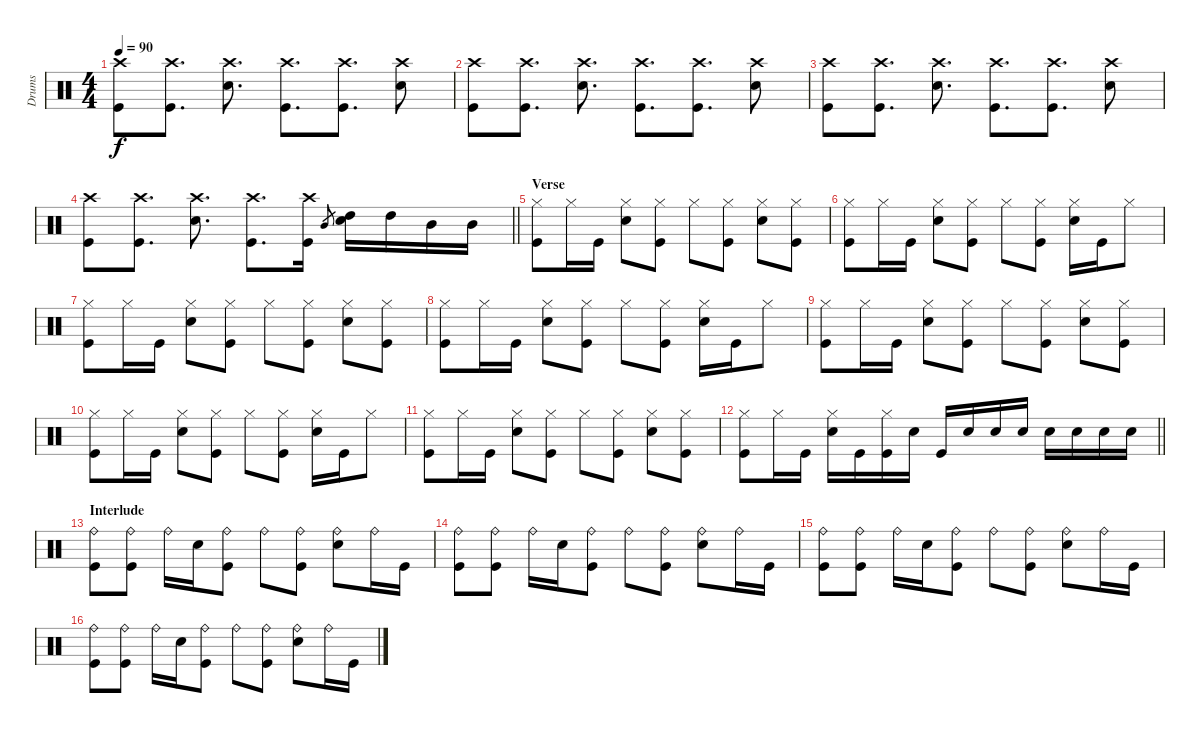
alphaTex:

\track ("Drums" "Drums") {instrument percussion}
\staff {score}
\articulation defaults
\ts (4 4)
\tempo 90
\clef neutral
\ks c
("Crash high (hit)" "Kick (hit)").8{dy f} ("Crash high (hit)" "Kick (hit)").8{d} ("Crash high (hit)" "Electric Snare (hit)").8{d} ("Crash high (hit)" "Kick (hit)").8{d} ("Crash high (hit)" "Kick (hit)").8{d} ("Crash high (hit)" "Electric Snare (hit)").8 |
("Crash high (hit)" "Kick (hit)").8 ("Crash high (hit)" "Kick (hit)").8{d} ("Crash high (hit)" "Electric Snare (hit)").8{d} ("Crash high (hit)" "Kick (hit)").8{d} ("Crash high (hit)" "Kick (hit)").8{d} ("Crash high (hit)" "Electric Snare (hit)").8 |
("Crash high (hit)" "Kick (hit)").8 ("Crash high (hit)" "Kick (hit)").8{d} ("Crash high (hit)" "Electric Snare (hit)").8{d} ("Crash high (hit)" "Kick (hit)").8{d} ("Crash high (hit)" "Kick (hit)").8{d} ("Crash high (hit)" "Electric Snare (hit)").8 |
\barLineRight lightlight
("Crash high (hit)" "Kick (hit)").8 ("Crash high (hit)" "Kick (hit)").8{d} ("Crash high (hit)" "Electric Snare (hit)").8{d} ("Crash high (hit)" "Kick (hit)").8{d} ("Crash high (hit)" "Kick (hit)").16 "Mid Tom (hit)".8{gr} ("High Tom (hit)" "Electric Snare (hit)").16 "High Tom (hit)".16 "Mid Tom (hit)".16 "Mid Tom (hit)".16 |
\section ("" "Verse ")
("Hi-Hat (closed)" "Kick (hit)").8 "Hi-Hat (closed)".16 "Kick (hit)".16 ("Hi-Hat (closed)" "Electric Snare (hit)").8 ("Hi-Hat (closed)" "Kick (hit)").8 "Hi-Hat (closed)".8 ("Hi-Hat (closed)" "Kick (hit)").8 ("Hi-Hat (closed)" "Electric Snare (hit)").8 ("Hi-Hat (closed)" "Kick (hit)").8 |
("Hi-Hat (closed)" "Kick (hit)").8 "Hi-Hat (closed)".16 "Kick (hit)".16 ("Hi-Hat (closed)" "Electric Snare (hit)").8 ("Hi-Hat (closed)" "Kick (hit)").8 "Hi-Hat (closed)".8 ("Hi-Hat (closed)" "Kick (hit)").8 ("Hi-Hat (closed)" "Electric Snare (hit)").16 "Kick (hit)".16 "Hi-Hat (closed)".8 |
("Hi-Hat (closed)" "Kick (hit)").8 "Hi-Hat (closed)".16 "Kick (hit)".16 ("Hi-Hat (closed)" "Electric Snare (hit)").8 ("Hi-Hat (closed)" "Kick (hit)").8 "Hi-Hat (closed)".8 ("Hi-Hat (closed)" "Kick (hit)").8 ("Hi-Hat (closed)" "Electric Snare (hit)").8 ("Hi-Hat (closed)" "Kick (hit)").8 |
("Hi-Hat (closed)" "Kick (hit)").8 "Hi-Hat (closed)".16 "Kick (hit)".16 ("Hi-Hat (closed)" "Electric Snare (hit)").8 ("Hi-Hat (closed)" "Kick (hit)").8 "Hi-Hat (closed)".8 ("Hi-Hat (closed)" "Kick (hit)").8 ("Hi-Hat (closed)" "Electric Snare (hit)").16 "Kick (hit)".16 "Hi-Hat (closed)".8 |
("Hi-Hat (closed)" "Kick (hit)").8 "Hi-Hat (closed)".16 "Kick (hit)".16 ("Hi-Hat (closed)" "Electric Snare (hit)").8 ("Hi-Hat (closed)" "Kick (hit)").8 "Hi-Hat (closed)".8 ("Hi-Hat (closed)" "Kick (hit)").8 ("Hi-Hat (closed)" "Electric Snare (hit)").8 ("Hi-Hat (closed)" "Kick (hit)").8 |
("Hi-Hat (closed)" "Kick (hit)").8 "Hi-Hat (closed)".16 "Kick (hit)".16 ("Hi-Hat (closed)" "Electric Snare (hit)").8 ("Hi-Hat (closed)" "Kick (hit)").8 "Hi-Hat (closed)".8 ("Hi-Hat (closed)" "Kick (hit)").8 ("Hi-Hat (closed)" "Electric Snare (hit)").16 "Kick (hit)".16 "Hi-Hat (closed)".8 |
("Hi-Hat (closed)" "Kick (hit)").8 "Hi-Hat (closed)".16 "Kick (hit)".16 ("Hi-Hat (closed)" "Electric Snare (hit)").8 ("Hi-Hat (closed)" "Kick (hit)").8 "Hi-Hat (closed)".8 ("Hi-Hat (closed)" "Kick (hit)").8 ("Hi-Hat (closed)" "Electric Snare (hit)").8 ("Hi-Hat (closed)" "Kick (hit)").8 |
\barLineRight lightlight
("Hi-Hat (closed)" "Kick (hit)").8 "Hi-Hat (closed)".16 "Kick (hit)".16 ("Hi-Hat (closed)" "Electric Snare (hit)").16 "Kick (hit)".16 ("Hi-Hat (closed)" "Kick (hit)").16 "Electric Snare (hit)".16 "Kick (hit)".16 "Electric Snare (hit)".16 "Electric Snare (hit)".16 "Electric Snare (hit)".16 "Electric Snare (hit)".16 "Electric Snare (hit)".16 "Electric Snare (hit)".16 "Electric Snare (hit)".16 |
\section ("" "Interlude ")
("Ride (bell)" "Kick (hit)").8 ("Ride (bell)" "Kick (hit)").8 "Ride (bell)".16 "Electric Snare (hit)".16 ("Ride (bell)" "Kick (hit)").8 "Ride (bell)".8 ("Ride (bell)" "Kick (hit)").8 ("Ride (bell)" "Electric Snare (hit)").8 "Ride (bell)".16 "Kick (hit)".16 |
("Ride (bell)" "Kick (hit)").8 ("Ride (bell)" "Kick (hit)").8 "Ride (bell)".16 "Electric Snare (hit)".16 ("Ride (bell)" "Kick (hit)").8 "Ride (bell)".8 ("Ride (bell)" "Kick (hit)").8 ("Ride (bell)" "Electric Snare (hit)").8 "Ride (bell)".16 "Kick (hit)".16 |
("Ride (bell)" "Kick (hit)").8 ("Ride (bell)" "Kick (hit)").8 "Ride (bell)".16 "Electric Snare (hit)".16 ("Ride (bell)" "Kick (hit)").8 "Ride (bell)".8 ("Ride (bell)" "Kick (hit)").8 ("Ride (bell)" "Electric Snare (hit)").8 "Ride (bell)".16 "Kick (hit)".16 |
("Ride (bell)" "Kick (hit)").8 ("Ride (bell)" "Kick (hit)").8 "Ride (bell)".16 "Electric Snare (hit)".16 ("Ride (bell)" "Kick (hit)").8 "Ride (bell)".8 ("Ride (bell)" "Kick (hit)").8 ("Ride (bell)" "Electric Snare (hit)").8 "Ride (bell)".16 "Kick (hit)".16
